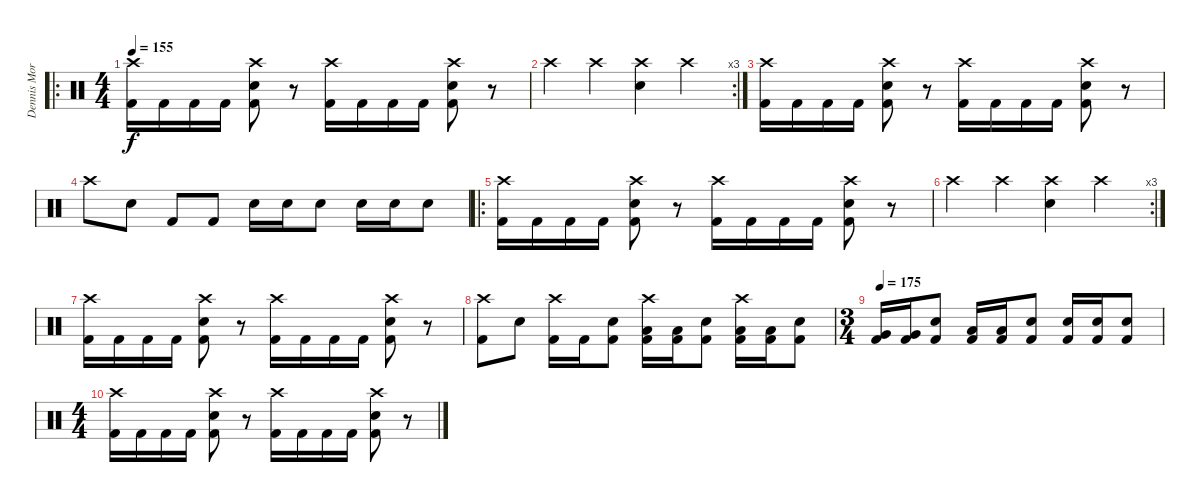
\track ("Dennis Morgan" "Dennis Mor") {instrument percussion}
\staff {score}
\articulation defaults
\ro
\ts (4 4)
\tempo 155
\clef neutral
\ks c
("Crash high (hit)" "Kick (hit) 2").16{dy f} "Kick (hit) 2".16 "Kick (hit) 2".16 "Kick (hit) 2".16 ("Crash high (hit)" "Electric Snare (hit)" "Kick (hit) 2").8 r.8 ("Crash high (hit)" "Kick (hit) 2").16 "Kick (hit) 2".16 "Kick (hit) 2".16 "Kick (hit) 2".16 ("Crash high (hit)" "Electric Snare (hit)" "Kick (hit) 2").8 r.8 |
\rc 3 "Crash high (hit)".4 "Crash high (hit)".4
("Crash high (hit)" "Electric Snare (hit)").4 "Crash high (hit)".4 |
("Crash high (hit)" "Kick (hit) 2").16 "Kick (hit) 2".16 "Kick (hit) 2".16 "Kick (hit) 2".16 ("Crash high (hit)" "Electric Snare (hit)" "Kick (hit) 2").8 r.8 ("Crash high (hit)" "Kick (hit) 2").16 "Kick (hit) 2".16 "Kick (hit) 2".16 "Kick (hit) 2".16 ("Crash high (hit)" "Electric Snare (hit)" "Kick (hit) 2").8 r.8 |
"Crash high (hit)".8 "Electric Snare (hit)".8 "Kick (hit) 2".8 "Kick (hit) 2".8 "Electric Snare (hit)".16 "Electric Snare (hit)".16 "Electric Snare (hit)".8 "Electric Snare (hit)".16 "Electric Snare (hit)".16 "Electric Snare (hit)".8 |
\ro
("Crash high (hit)" "Kick (hit) 2").16 "Kick (hit) 2".16 "Kick (hit) 2".16 "Kick (hit) 2".16 ("Crash high (hit)" "Electric Snare (hit)" "Kick (hit) 2").8 r.8 ("Crash high (hit)" "Kick (hit) 2").16 "Kick (hit) 2".16 "Kick (hit) 2".16 "Kick (hit) 2".16 ("Crash high (hit)" "Electric Snare (hit)" "Kick (hit) 2").8 r.8 |
\rc 3 "Crash high (hit)".4 "Crash high (hit)".4
("Crash high (hit)" "Electric Snare (hit)").4 "Crash high (hit)".4 |
("Crash high (hit)" "Kick (hit) 2").16 "Kick (hit) 2".16 "Kick (hit) 2".16 "Kick (hit) 2".16 ("Crash high (hit)" "Electric Snare (hit)" "Kick (hit) 2").8 r.8 ("Crash high (hit)" "Kick (hit) 2").16 "Kick (hit) 2".16 "Kick (hit) 2".16 "Kick (hit) 2".16 ("Crash high (hit)" "Electric Snare (hit)" "Kick (hit) 2").8 r.8 |
("Crash high (hit)" "Kick (hit) 2").8 "Electric Snare (hit)".8 ("Crash high (hit)" "Kick (hit) 2").16 "Kick (hit) 2".16 ("Electric Snare (hit)" "Kick (hit) 2").8 ("Crash high (hit)" "Low Tom (hit)" "Kick (hit) 2").16 ("Low Tom (hit)" "Kick (hit) 2").16 ("Electric Snare (hit)" "Kick (hit) 2").8 ("Crash high (hit)" "Low Floor Tom (hit)" "Kick (hit) 2").16 ("Low Floor Tom (hit)" "Kick (hit) 2").16 ("Electric Snare (hit)" "Kick (hit) 2").8 |
\ts (3 4)
\tempo 175
("Very Low Tom (hit)" "Kick (hit) 2").16 ("Very Low Tom (hit)" "Kick (hit) 2").16 ("Electric Snare (hit)" "Kick (hit) 2").8 ("Low Floor Tom (hit)" "Kick (hit) 2").16 ("Low Floor Tom (hit)" "Kick (hit) 2").16 ("Electric Snare (hit)" "Kick (hit) 2").8 ("Electric Snare (hit)" "Kick (hit) 2").16 ("Electric Snare (hit)" "Kick (hit) 2").16 ("Electric Snare (hit)" "Kick (hit) 2").8 |
\ts (4 4)
("Crash high (hit)" "Kick (hit) 2").16 "Kick (hit) 2".16 "Kick (hit) 2".16 "Kick (hit) 2".16 ("Crash high (hit)" "Electric Snare (hit)" "Kick (hit) 2").8 r.8 ("Crash high (hit)" "Kick (hit) 2").16 "Kick (hit) 2".16 "Kick (hit) 2".16 "Kick (hit) 2".16 ("Crash high (hit)" "Electric Snare (hit)" "Kick (hit) 2").8 r.8
